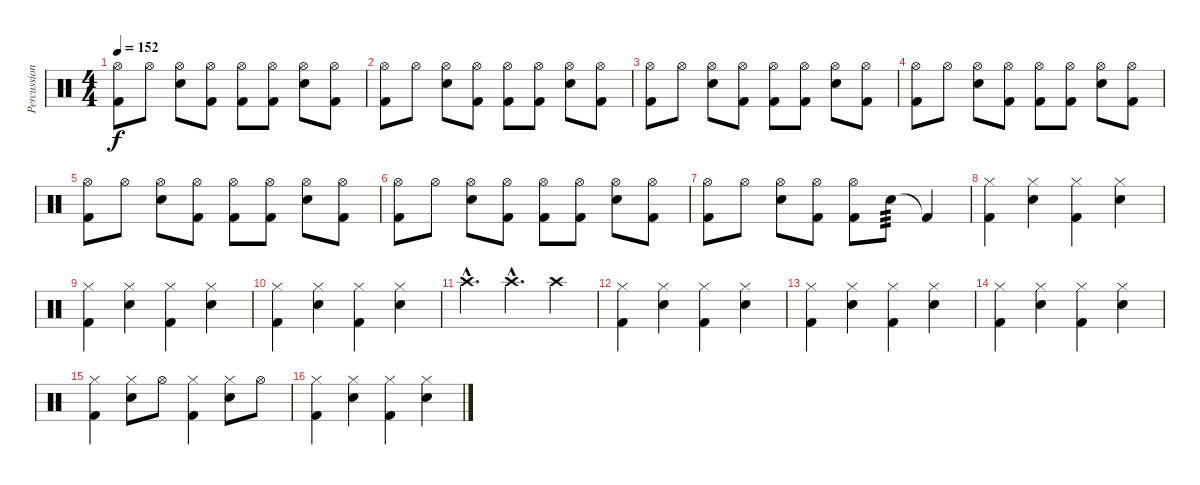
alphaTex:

\track ("Percussion" "Percussion") {instrument percussion}
\staff {score}
\articulation defaults
\ts (4 4)
\tempo 152
\clef neutral
\ks c
("Kick (hit) 2" "Hi-Hat (open)").8{dy f} "Hi-Hat (open)".8 ("Snare (hit) 2" "Hi-Hat (open)").8 ("Kick (hit) 2" "Hi-Hat (open)").8 ("Kick (hit) 2" "Hi-Hat (open)").8 ("Kick (hit) 2" "Hi-Hat (open)").8 ("Snare (hit) 2" "Hi-Hat (open)").8 ("Kick (hit) 2" "Hi-Hat (open)").8 |
("Kick (hit) 2" "Hi-Hat (open)").8 "Hi-Hat (open)".8 ("Snare (hit) 2" "Hi-Hat (open)").8 ("Kick (hit) 2" "Hi-Hat (open)").8 ("Kick (hit) 2" "Hi-Hat (open)").8 ("Kick (hit) 2" "Hi-Hat (open)").8 ("Snare (hit) 2" "Hi-Hat (open)").8 ("Kick (hit) 2" "Hi-Hat (open)").8 |
("Kick (hit) 2" "Hi-Hat (open)").8 "Hi-Hat (open)".8 ("Snare (hit) 2" "Hi-Hat (open)").8 ("Kick (hit) 2" "Hi-Hat (open)").8 ("Kick (hit) 2" "Hi-Hat (open)").8 ("Kick (hit) 2" "Hi-Hat (open)").8 ("Snare (hit) 2" "Hi-Hat (open)").8 ("Kick (hit) 2" "Hi-Hat (open)").8 |
("Kick (hit) 2" "Hi-Hat (open)").8 "Hi-Hat (open)".8 ("Snare (hit) 2" "Hi-Hat (open)").8 ("Kick (hit) 2" "Hi-Hat (open)").8 ("Kick (hit) 2" "Hi-Hat (open)").8 ("Kick (hit) 2" "Hi-Hat (open)").8 ("Snare (hit) 2" "Hi-Hat (open)").8 ("Kick (hit) 2" "Hi-Hat (open)").8 |
("Kick (hit) 2" "Hi-Hat (open)").8 "Hi-Hat (open)".8 ("Snare (hit) 2" "Hi-Hat (open)").8 ("Kick (hit) 2" "Hi-Hat (open)").8 ("Kick (hit) 2" "Hi-Hat (open)").8 ("Kick (hit) 2" "Hi-Hat (open)").8 ("Snare (hit) 2" "Hi-Hat (open)").8 ("Kick (hit) 2" "Hi-Hat (open)").8 |
("Kick (hit) 2" "Hi-Hat (open)").8 "Hi-Hat (open)".8 ("Snare (hit) 2" "Hi-Hat (open)").8 ("Kick (hit) 2" "Hi-Hat (open)").8 ("Kick (hit) 2" "Hi-Hat (open)").8 ("Kick (hit) 2" "Hi-Hat (open)").8 ("Snare (hit) 2" "Hi-Hat (open)").8 ("Kick (hit) 2" "Hi-Hat (open)").8 |
("Kick (hit) 2" "Hi-Hat (open)").8 "Hi-Hat (open)".8 ("Snare (hit) 2" "Hi-Hat (open)").8 ("Kick (hit) 2" "Hi-Hat (open)").8 ("Kick (hit) 2" "Hi-Hat (open)").8 "Snare (hit) 2".8{tp 3} "Kick (hit) 2"{t}.4 |
("Kick (hit) 2" "Hi-Hat (closed)").4 ("Snare (hit) 2" "Hi-Hat (closed)").4 ("Kick (hit) 2" "Hi-Hat (closed)").4 ("Snare (hit) 2" "Hi-Hat (closed)").4 |
("Kick (hit) 2" "Hi-Hat (closed)").4 ("Snare (hit) 2" "Hi-Hat (closed)").4 ("Kick (hit) 2" "Hi-Hat (closed)").4 ("Snare (hit) 2" "Hi-Hat (closed)").4 |
("Kick (hit) 2" "Hi-Hat (closed)").4 ("Snare (hit) 2" "Hi-Hat (closed)").4 ("Kick (hit) 2" "Hi-Hat (closed)").4 ("Snare (hit) 2" "Hi-Hat (closed)").4 |
"Crash high (hit)"{hac}.4{d} "Crash high (hit)"{hac}.4{d} "Crash high (hit)".4 |
("Kick (hit) 2" "Hi-Hat (closed)").4 ("Snare (hit) 2" "Hi-Hat (closed)").4 ("Kick (hit) 2" "Hi-Hat (closed)").4 ("Snare (hit) 2" "Hi-Hat (closed)").4 |
("Kick (hit) 2" "Hi-Hat (closed)").4 ("Snare (hit) 2" "Hi-Hat (closed)").4 ("Kick (hit) 2" "Hi-Hat (closed)").4 ("Snare (hit) 2" "Hi-Hat (closed)").4 |
("Kick (hit) 2" "Hi-Hat (closed)").4 ("Snare (hit) 2" "Hi-Hat (closed)").4 ("Kick (hit) 2" "Hi-Hat (closed)").4 ("Snare (hit) 2" "Hi-Hat (closed)").4 |
("Kick (hit) 2" "Hi-Hat (closed)").4 ("Snare (hit) 2" "Hi-Hat (closed)").8 "Hi-Hat (open)".8 ("Kick (hit) 2" "Hi-Hat (closed)").4 ("Snare (hit) 2" "Hi-Hat (closed)").8 "Hi-Hat (open)".8 |
("Kick (hit) 2" "Hi-Hat (closed)").4 ("Snare (hit) 2" "Hi-Hat (closed)").4 ("Kick (hit) 2" "Hi-Hat (closed)").4 ("Snare (hit) 2" "Hi-Hat (closed)").4
